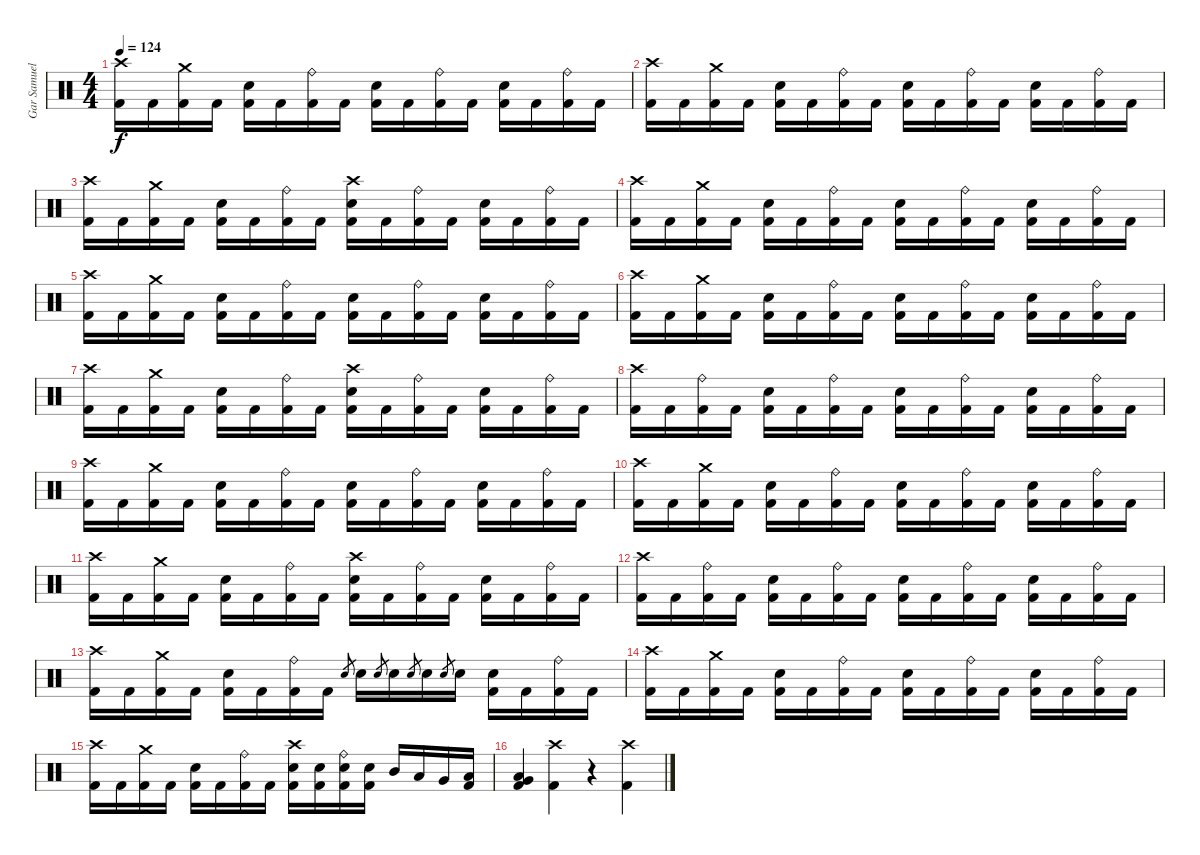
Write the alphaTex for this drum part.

\track ("Gar Samuelson" "Gar Samuel") {instrument percussion}
\staff {score}
\articulation defaults
\ts (4 4)
\tempo 124
\clef neutral
\ks c
("Crash high (hit)" "Kick (hit) 2").16{dy f} "Kick (hit) 2".16 ("Crash medium (hit)" "Kick (hit) 2").16 "Kick (hit) 2".16 ("Electric Snare (hit)" "Kick (hit) 2").16 "Kick (hit) 2".16 ("Ride (bell)" "Kick (hit) 2").16 "Kick (hit) 2".16 ("Electric Snare (hit)" "Kick (hit) 2").16 "Kick (hit) 2".16 ("Ride (bell)" "Kick (hit) 2").16 "Kick (hit) 2".16 ("Electric Snare (hit)" "Kick (hit) 2").16 "Kick (hit) 2".16 ("Ride (bell)" "Kick (hit) 2").16 "Kick (hit) 2".16 |
("Crash high (hit)" "Kick (hit) 2").16 "Kick (hit) 2".16 ("Crash medium (hit)" "Kick (hit) 2").16 "Kick (hit) 2".16 ("Electric Snare (hit)" "Kick (hit) 2").16 "Kick (hit) 2".16 ("Ride (bell)" "Kick (hit) 2").16 "Kick (hit) 2".16 ("Electric Snare (hit)" "Kick (hit) 2").16 "Kick (hit) 2".16 ("Ride (bell)" "Kick (hit) 2").16 "Kick (hit) 2".16 ("Electric Snare (hit)" "Kick (hit) 2").16 "Kick (hit) 2".16 ("Ride (bell)" "Kick (hit) 2").16 "Kick (hit) 2".16 |
("Crash high (hit)" "Kick (hit) 2").16 "Kick (hit) 2".16 ("Crash medium (hit)" "Kick (hit) 2").16 "Kick (hit) 2".16 ("Electric Snare (hit)" "Kick (hit) 2").16 "Kick (hit) 2".16 ("Ride (bell)" "Kick (hit) 2").16 "Kick (hit) 2".16 ("Crash high (hit)" "Electric Snare (hit)" "Kick (hit) 2").16 "Kick (hit) 2".16 ("Ride (bell)" "Kick (hit) 2").16 "Kick (hit) 2".16 ("Electric Snare (hit)" "Kick (hit) 2").16 "Kick (hit) 2".16 ("Ride (bell)" "Kick (hit) 2").16 "Kick (hit) 2".16 |
("Crash high (hit)" "Kick (hit) 2").16 "Kick (hit) 2".16 ("Crash medium (hit)" "Kick (hit) 2").16 "Kick (hit) 2".16 ("Electric Snare (hit)" "Kick (hit) 2").16 "Kick (hit) 2".16 ("Ride (bell)" "Kick (hit) 2").16 "Kick (hit) 2".16 ("Electric Snare (hit)" "Kick (hit) 2").16 "Kick (hit) 2".16 ("Ride (bell)" "Kick (hit) 2").16 "Kick (hit) 2".16 ("Electric Snare (hit)" "Kick (hit) 2").16 "Kick (hit) 2".16 ("Ride (bell)" "Kick (hit) 2").16 "Kick (hit) 2".16 |
("Crash high (hit)" "Kick (hit) 2").16 "Kick (hit) 2".16 ("Crash medium (hit)" "Kick (hit) 2").16 "Kick (hit) 2".16 ("Electric Snare (hit)" "Kick (hit) 2").16 "Kick (hit) 2".16 ("Ride (bell)" "Kick (hit) 2").16 "Kick (hit) 2".16 ("Electric Snare (hit)" "Kick (hit) 2").16 "Kick (hit) 2".16 ("Ride (bell)" "Kick (hit) 2").16 "Kick (hit) 2".16 ("Electric Snare (hit)" "Kick (hit) 2").16 "Kick (hit) 2".16 ("Ride (bell)" "Kick (hit) 2").16 "Kick (hit) 2".16 |
("Crash high (hit)" "Kick (hit) 2").16 "Kick (hit) 2".16 ("Crash medium (hit)" "Kick (hit) 2").16 "Kick (hit) 2".16 ("Electric Snare (hit)" "Kick (hit) 2").16 "Kick (hit) 2".16 ("Ride (bell)" "Kick (hit) 2").16 "Kick (hit) 2".16 ("Electric Snare (hit)" "Kick (hit) 2").16 "Kick (hit) 2".16 ("Ride (bell)" "Kick (hit) 2").16 "Kick (hit) 2".16 ("Electric Snare (hit)" "Kick (hit) 2").16 "Kick (hit) 2".16 ("Ride (bell)" "Kick (hit) 2").16 "Kick (hit) 2".16 |
("Crash high (hit)" "Kick (hit) 2").16 "Kick (hit) 2".16 ("Crash medium (hit)" "Kick (hit) 2").16 "Kick (hit) 2".16 ("Electric Snare (hit)" "Kick (hit) 2").16 "Kick (hit) 2".16 ("Ride (bell)" "Kick (hit) 2").16 "Kick (hit) 2".16 ("Crash high (hit)" "Electric Snare (hit)" "Kick (hit) 2").16 "Kick (hit) 2".16 ("Ride (bell)" "Kick (hit) 2").16 "Kick (hit) 2".16 ("Electric Snare (hit)" "Kick (hit) 2").16 "Kick (hit) 2".16 ("Ride (bell)" "Kick (hit) 2").16 "Kick (hit) 2".16 |
("Crash high (hit)" "Kick (hit) 2").16 "Kick (hit) 2".16 ("Ride (bell)" "Kick (hit) 2").16 "Kick (hit) 2".16 ("Electric Snare (hit)" "Kick (hit) 2").16 "Kick (hit) 2".16 ("Ride (bell)" "Kick (hit) 2").16 "Kick (hit) 2".16 ("Electric Snare (hit)" "Kick (hit) 2").16 "Kick (hit) 2".16 ("Ride (bell)" "Kick (hit) 2").16 "Kick (hit) 2".16 ("Electric Snare (hit)" "Kick (hit) 2").16 "Kick (hit) 2".16 ("Ride (bell)" "Kick (hit) 2").16 "Kick (hit) 2".16 |
("Crash high (hit)" "Kick (hit) 2").16 "Kick (hit) 2".16 ("Crash medium (hit)" "Kick (hit) 2").16 "Kick (hit) 2".16 ("Electric Snare (hit)" "Kick (hit) 2").16 "Kick (hit) 2".16 ("Ride (bell)" "Kick (hit) 2").16 "Kick (hit) 2".16 ("Electric Snare (hit)" "Kick (hit) 2").16 "Kick (hit) 2".16 ("Ride (bell)" "Kick (hit) 2").16 "Kick (hit) 2".16 ("Electric Snare (hit)" "Kick (hit) 2").16 "Kick (hit) 2".16 ("Ride (bell)" "Kick (hit) 2").16 "Kick (hit) 2".16 |
("Crash high (hit)" "Kick (hit) 2").16 "Kick (hit) 2".16 ("Crash medium (hit)" "Kick (hit) 2").16 "Kick (hit) 2".16 ("Electric Snare (hit)" "Kick (hit) 2").16 "Kick (hit) 2".16 ("Ride (bell)" "Kick (hit) 2").16 "Kick (hit) 2".16 ("Electric Snare (hit)" "Kick (hit) 2").16 "Kick (hit) 2".16 ("Ride (bell)" "Kick (hit) 2").16 "Kick (hit) 2".16 ("Electric Snare (hit)" "Kick (hit) 2").16 "Kick (hit) 2".16 ("Ride (bell)" "Kick (hit) 2").16 "Kick (hit) 2".16 |
("Crash high (hit)" "Kick (hit) 2").16 "Kick (hit) 2".16 ("Crash medium (hit)" "Kick (hit) 2").16 "Kick (hit) 2".16 ("Electric Snare (hit)" "Kick (hit) 2").16 "Kick (hit) 2".16 ("Ride (bell)" "Kick (hit) 2").16 "Kick (hit) 2".16 ("Crash high (hit)" "Electric Snare (hit)" "Kick (hit) 2").16 "Kick (hit) 2".16 ("Ride (bell)" "Kick (hit) 2").16 "Kick (hit) 2".16 ("Electric Snare (hit)" "Kick (hit) 2").16 "Kick (hit) 2".16 ("Ride (bell)" "Kick (hit) 2").16 "Kick (hit) 2".16 |
("Crash high (hit)" "Kick (hit) 2").16 "Kick (hit) 2".16 ("Ride (bell)" "Kick (hit) 2").16 "Kick (hit) 2".16 ("Electric Snare (hit)" "Kick (hit) 2").16 "Kick (hit) 2".16 ("Ride (bell)" "Kick (hit) 2").16 "Kick (hit) 2".16 ("Electric Snare (hit)" "Kick (hit) 2").16 "Kick (hit) 2".16 ("Ride (bell)" "Kick (hit) 2").16 "Kick (hit) 2".16 ("Electric Snare (hit)" "Kick (hit) 2").16 "Kick (hit) 2".16 ("Ride (bell)" "Kick (hit) 2").16 "Kick (hit) 2".16 |
("Crash high (hit)" "Kick (hit) 2").16 "Kick (hit) 2".16 ("Crash medium (hit)" "Kick (hit) 2").16 "Kick (hit) 2".16 ("Electric Snare (hit)" "Kick (hit) 2").16 "Kick (hit) 2".16 ("Ride (bell)" "Kick (hit) 2").16 "Kick (hit) 2".16 "Electric Snare (hit)".8{gr} "Electric Snare (hit)".16 "Electric Snare (hit)".8{gr} "Electric Snare (hit)".16 "Electric Snare (hit)".8{gr} "Electric Snare (hit)".16 "Electric Snare (hit)".8{gr} "Electric Snare (hit)".16 ("Electric Snare (hit)" "Kick (hit) 2").16 "Kick (hit) 2".16 ("Ride (bell)" "Kick (hit) 2").16 "Kick (hit) 2".16 |
("Crash high (hit)" "Kick (hit) 2").16 "Kick (hit) 2".16 ("Crash medium (hit)" "Kick (hit) 2").16 "Kick (hit) 2".16 ("Electric Snare (hit)" "Kick (hit) 2").16 "Kick (hit) 2".16 ("Ride (bell)" "Kick (hit) 2").16 "Kick (hit) 2".16 ("Electric Snare (hit)" "Kick (hit) 2").16 "Kick (hit) 2".16 ("Ride (bell)" "Kick (hit) 2").16 "Kick (hit) 2".16 ("Electric Snare (hit)" "Kick (hit) 2").16 "Kick (hit) 2".16 ("Ride (bell)" "Kick (hit) 2").16 "Kick (hit) 2".16 |
("Crash high (hit)" "Kick (hit) 2").16 "Kick (hit) 2".16 ("Crash medium (hit)" "Kick (hit) 2").16 "Kick (hit) 2".16 ("Electric Snare (hit)" "Kick (hit) 2").16 "Kick (hit) 2".16 ("Ride (bell)" "Kick (hit) 2").16 "Kick (hit) 2".16 ("Crash high (hit)" "Electric Snare (hit)" "Kick (hit) 2").16 ("Electric Snare (hit)" "Kick (hit) 2").16 ("Ride (bell)" "Electric Snare (hit)" "Kick (hit) 2").16 ("Electric Snare (hit)" "Kick (hit) 2").16 "Mid Tom (hit)".16 "Low Tom (hit)".16 "Very Low Tom (hit)".16 ("Low Floor Tom (hit)" "Kick (hit) 2").16 |
("Low Floor Tom (hit)" "Very Low Tom (hit)" "Kick (hit) 2").4 ("Crash high (hit)" "Kick (hit) 2").4 r.4 ("Crash high (hit)" "Kick (hit) 2").4
